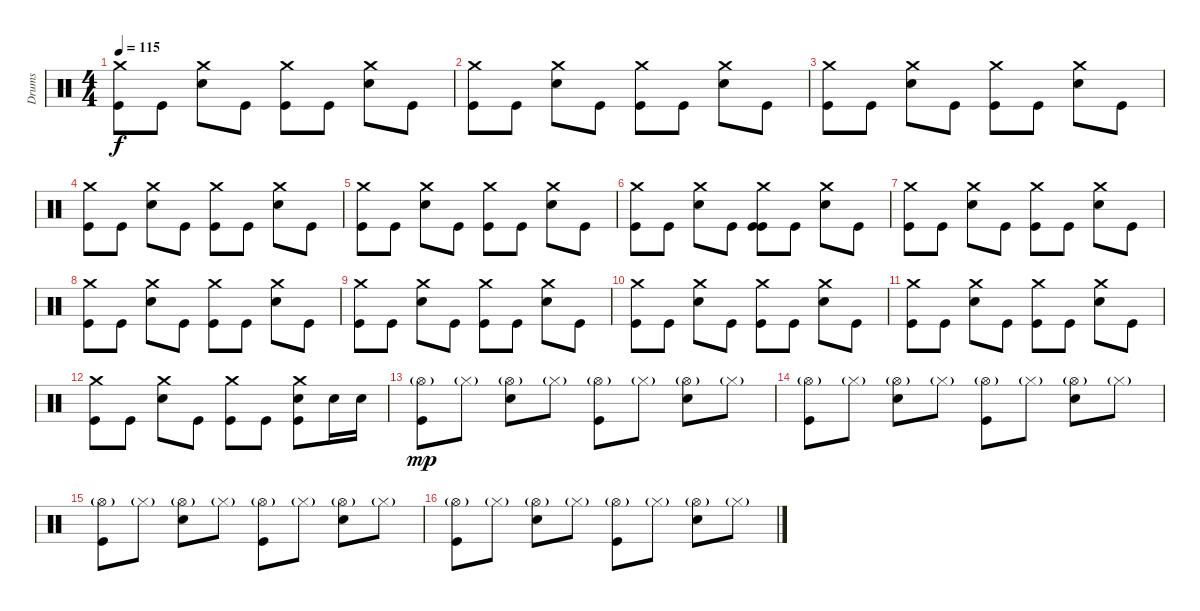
\track ("Drums" "Drums") {instrument percussion}
\staff {score}
\articulation defaults
\ts (4 4)
\tempo 115
\clef neutral
\ks c
("Crash medium (hit)" "Kick (hit)").8{dy f} "Kick (hit)".8 ("Crash medium (hit)" "Electric Snare (hit)").8 "Kick (hit)".8 ("Crash medium (hit)" "Kick (hit)").8 "Kick (hit)".8 ("Crash medium (hit)" "Electric Snare (hit)").8 "Kick (hit)".8 |
("Crash medium (hit)" "Kick (hit)").8 "Kick (hit)".8 ("Crash medium (hit)" "Electric Snare (hit)").8 "Kick (hit)".8 ("Crash medium (hit)" "Kick (hit)").8 "Kick (hit)".8 ("Crash medium (hit)" "Electric Snare (hit)").8 "Kick (hit)".8 |
("Crash medium (hit)" "Kick (hit)").8 "Kick (hit)".8 ("Crash medium (hit)" "Electric Snare (hit)").8 "Kick (hit)".8 ("Crash medium (hit)" "Kick (hit)").8 "Kick (hit)".8 ("Crash medium (hit)" "Electric Snare (hit)").8 "Kick (hit)".8 |
("Crash medium (hit)" "Kick (hit)").8 "Kick (hit)".8 ("Crash medium (hit)" "Electric Snare (hit)").8 "Kick (hit)".8 ("Crash medium (hit)" "Kick (hit)").8 "Kick (hit)".8 ("Crash medium (hit)" "Electric Snare (hit)").8 "Kick (hit)".8 |
("Crash medium (hit)" "Kick (hit)").8 "Kick (hit)".8 ("Crash medium (hit)" "Electric Snare (hit)").8 "Kick (hit)".8 ("Crash medium (hit)" "Kick (hit)").8 "Kick (hit)".8 ("Crash medium (hit)" "Electric Snare (hit)").8 "Kick (hit)".8 |
("Crash medium (hit)" "Kick (hit)").8 "Kick (hit)".8 ("Crash medium (hit)" "Electric Snare (hit)").8 "Kick (hit)".8 ("Crash medium (hit)" "Kick (hit)" "Kick (hit)").8 "Kick (hit)".8 ("Crash medium (hit)" "Electric Snare (hit)").8 "Kick (hit)".8 |
("Crash medium (hit)" "Kick (hit)").8 "Kick (hit)".8 ("Crash medium (hit)" "Electric Snare (hit)").8 "Kick (hit)".8 ("Crash medium (hit)" "Kick (hit)").8 "Kick (hit)".8 ("Crash medium (hit)" "Electric Snare (hit)").8 "Kick (hit)".8 |
("Crash medium (hit)" "Kick (hit)").8 "Kick (hit)".8 ("Crash medium (hit)" "Electric Snare (hit)").8 "Kick (hit)".8 ("Crash medium (hit)" "Kick (hit)").8 "Kick (hit)".8 ("Crash medium (hit)" "Electric Snare (hit)").8 "Kick (hit)".8 |
("Crash medium (hit)" "Kick (hit)").8 "Kick (hit)".8 ("Crash medium (hit)" "Electric Snare (hit)").8 "Kick (hit)".8 ("Crash medium (hit)" "Kick (hit)").8 "Kick (hit)".8 ("Crash medium (hit)" "Electric Snare (hit)").8 "Kick (hit)".8 |
("Crash medium (hit)" "Kick (hit)").8 "Kick (hit)".8 ("Crash medium (hit)" "Electric Snare (hit)").8 "Kick (hit)".8 ("Crash medium (hit)" "Kick (hit)").8 "Kick (hit)".8 ("Crash medium (hit)" "Electric Snare (hit)").8 "Kick (hit)".8 |
("Crash medium (hit)" "Kick (hit)").8 "Kick (hit)".8 ("Crash medium (hit)" "Electric Snare (hit)").8 "Kick (hit)".8 ("Crash medium (hit)" "Kick (hit)").8 "Kick (hit)".8 ("Crash medium (hit)" "Electric Snare (hit)").8 "Kick (hit)".8 |
("Crash medium (hit)" "Kick (hit)").8 "Kick (hit)".8 ("Crash medium (hit)" "Electric Snare (hit)").8 "Kick (hit)".8 ("Crash medium (hit)" "Kick (hit)").8 "Kick (hit)".8 ("Crash medium (hit)" "Electric Snare (hit)" "Kick (hit)").8 "Electric Snare (hit)".16 "Electric Snare (hit)".16 |
("Hi-Hat (open)"{g} "Kick (hit)").8{dy mp} "Hi-Hat (closed)"{g}.8 ("Hi-Hat (open)"{g} "Electric Snare (hit)").8 "Hi-Hat (closed)"{g}.8 ("Hi-Hat (open)"{g} "Kick (hit)").8 "Hi-Hat (closed)"{g}.8 ("Hi-Hat (open)"{g} "Electric Snare (hit)").8 "Hi-Hat (closed)"{g}.8 |
("Hi-Hat (open)"{g} "Kick (hit)").8 "Hi-Hat (closed)"{g}.8 ("Hi-Hat (open)"{g} "Electric Snare (hit)").8 "Hi-Hat (closed)"{g}.8 ("Hi-Hat (open)"{g} "Kick (hit)").8 "Hi-Hat (closed)"{g}.8 ("Hi-Hat (open)"{g} "Electric Snare (hit)").8 "Hi-Hat (closed)"{g}.8 |
("Hi-Hat (open)"{g} "Kick (hit)").8 "Hi-Hat (closed)"{g}.8 ("Hi-Hat (open)"{g} "Electric Snare (hit)").8 "Hi-Hat (closed)"{g}.8 ("Hi-Hat (open)"{g} "Kick (hit)").8 "Hi-Hat (closed)"{g}.8 ("Hi-Hat (open)"{g} "Electric Snare (hit)").8 "Hi-Hat (closed)"{g}.8 |
("Hi-Hat (open)"{g} "Kick (hit)").8 "Hi-Hat (closed)"{g}.8 ("Hi-Hat (open)"{g} "Electric Snare (hit)").8 "Hi-Hat (closed)"{g}.8 ("Hi-Hat (open)"{g} "Kick (hit)").8 "Hi-Hat (closed)"{g}.8 ("Hi-Hat (open)"{g} "Electric Snare (hit)").8 "Hi-Hat (closed)"{g}.8
